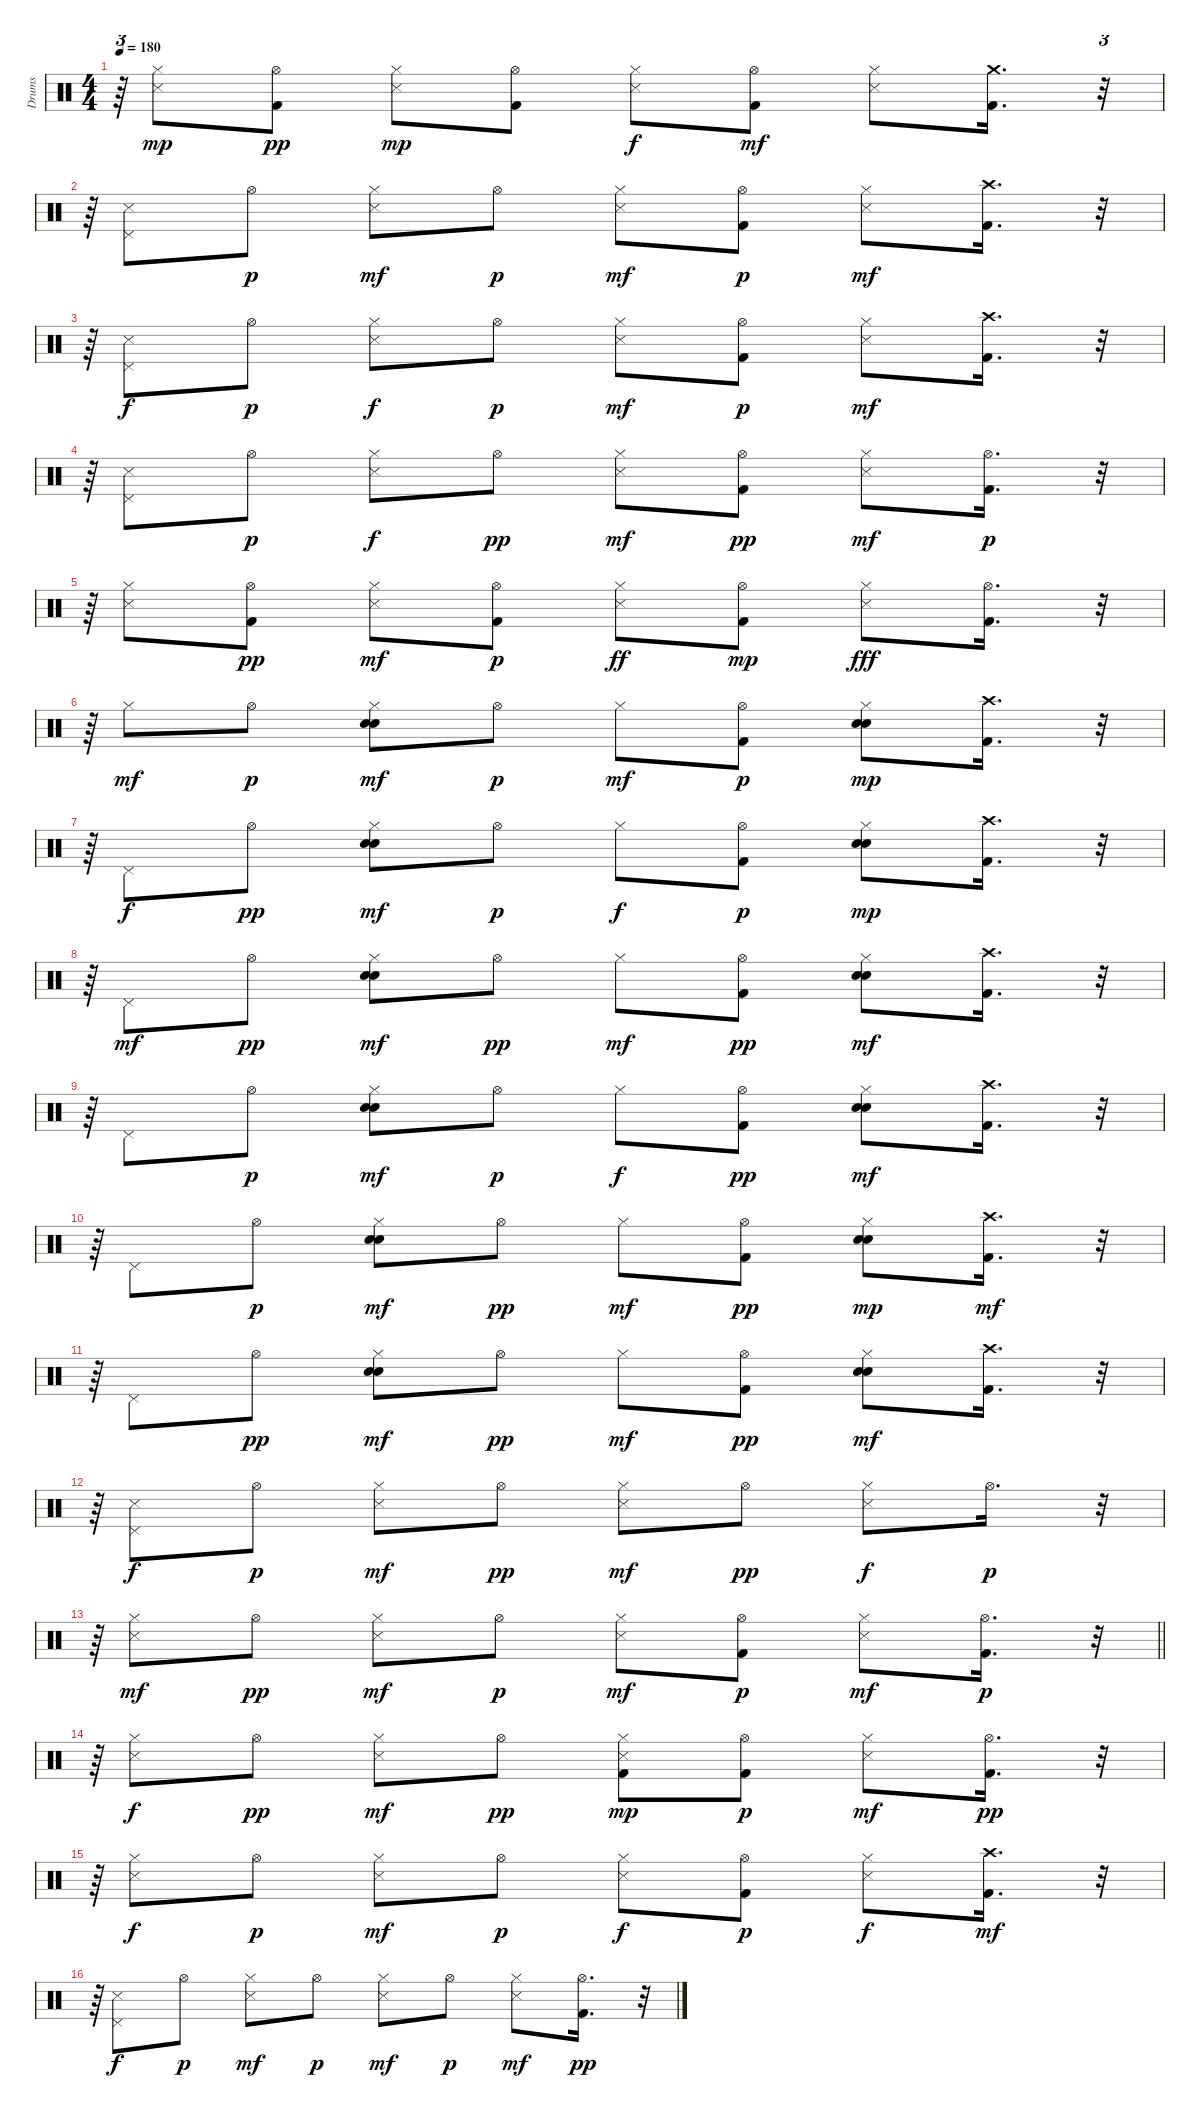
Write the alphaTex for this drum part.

\track ("Drums" "Drums") {instrument percussion}
\staff {score}
\articulation defaults
\ts (4 4)
\tempo 180
\clef neutral
\ks c
r.64{tu (3 2) dy p} ("Hi-Hat (closed)" "Snare (side stick) 3").8{dy mp} ("Kick (hit) 2" "Hi-Hat (open)").8{dy pp} ("Hi-Hat (closed)" "Snare (side stick) 3").8{dy mp} ("Kick (hit) 2" "Hi-Hat (open)").8 ("Hi-Hat (closed)" "Snare (side stick) 3").8{dy f} ("Kick (hit) 2" "Hi-Hat (open)").8{dy mf} ("Hi-Hat (closed)" "Snare (side stick) 3").8 ("Kick (hit) 2" "Crash medium (hit)").16{d} r.32{tu (3 2)} |
r.64{tu (3 2)} ("Pedal Hi-Hat (hit)" "Snare (side stick) 3").8 "Hi-Hat (open)".8{dy p} ("Hi-Hat (closed)" "Snare (side stick) 3").8{dy mf} "Hi-Hat (open)".8{dy p} ("Hi-Hat (closed)" "Snare (side stick) 3").8{dy mf} ("Kick (hit) 2" "Hi-Hat (open)").8{dy p} ("Hi-Hat (closed)" "Snare (side stick) 3").8{dy mf} ("Kick (hit) 2" "Crash high (hit)").16{d} r.32{tu (3 2)} |
r.64{tu (3 2)} ("Pedal Hi-Hat (hit)" "Snare (side stick) 3").8{dy f} "Hi-Hat (open)".8{dy p} ("Hi-Hat (closed)" "Snare (side stick) 3").8{dy f} "Hi-Hat (open)".8{dy p} ("Hi-Hat (closed)" "Snare (side stick) 3").8{dy mf} ("Kick (hit) 2" "Hi-Hat (open)").8{dy p} ("Hi-Hat (closed)" "Snare (side stick) 3").8{dy mf} ("Kick (hit) 2" "Crash high (hit)").16{d} r.32{tu (3 2)} |
r.64{tu (3 2)} ("Snare (side stick) 3" "Pedal Hi-Hat (hit)").8 "Hi-Hat (open)".8{dy p} ("Snare (side stick) 3" "Hi-Hat (closed)").8{dy f} "Hi-Hat (open)".8{dy pp} ("Snare (side stick) 3" "Hi-Hat (closed)").8{dy mf} ("Kick (hit) 2" "Hi-Hat (open)").8{dy pp} ("Snare (side stick) 3" "Hi-Hat (closed)").8{dy mf} ("Kick (hit) 2" "Hi-Hat (open)").16{d dy p} r.32{tu (3 2)} |
r.64{tu (3 2)} ("Snare (side stick) 3" "Hi-Hat (closed)").8 ("Kick (hit) 2" "Hi-Hat (open)").8{dy pp} ("Snare (side stick) 3" "Hi-Hat (closed)").8{dy mf} ("Kick (hit) 2" "Hi-Hat (open)").8{dy p} ("Snare (side stick) 3" "Hi-Hat (closed)").8{dy ff} ("Kick (hit) 2" "Hi-Hat (open)").8{dy mp} ("Snare (side stick) 3" "Hi-Hat (closed)").8{dy fff} ("Kick (hit) 2" "Hi-Hat (open)").16{d} r.32{tu (3 2)} |
r.64{tu (3 2)} "Hi-Hat (closed)".8{dy mf} "Hi-Hat (open)".8{dy p} ("Electric Snare (hit)" "Snare (hit) 2" "Hi-Hat (closed)").8{dy mf} "Hi-Hat (open)".8{dy p} "Hi-Hat (closed)".8{dy mf} ("Kick (hit) 2" "Hi-Hat (open)").8{dy p} ("Electric Snare (hit)" "Snare (hit) 2" "Hi-Hat (closed)").8{dy mp} ("Kick (hit) 2" "Crash high (hit)").16{d} r.32{tu (3 2)} |
r.64{tu (3 2)} "Pedal Hi-Hat (hit)".8{dy f} "Hi-Hat (open)".8{dy pp} ("Electric Snare (hit)" "Snare (hit) 2" "Hi-Hat (closed)").8{dy mf} "Hi-Hat (open)".8{dy p} "Hi-Hat (closed)".8{dy f} ("Kick (hit) 2" "Hi-Hat (open)").8{dy p} ("Electric Snare (hit)" "Snare (hit) 2" "Hi-Hat (closed)").8{dy mp} ("Kick (hit) 2" "Crash high (hit)").16{d} r.32{tu (3 2)} |
r.64{tu (3 2)} "Pedal Hi-Hat (hit)".8{dy mf} "Hi-Hat (open)".8{dy pp} ("Electric Snare (hit)" "Snare (hit) 2" "Hi-Hat (closed)").8{dy mf} "Hi-Hat (open)".8{dy pp} "Hi-Hat (closed)".8{dy mf} ("Kick (hit) 2" "Hi-Hat (open)").8{dy pp} ("Electric Snare (hit)" "Snare (hit) 2" "Hi-Hat (closed)").8{dy mf} ("Kick (hit) 2" "Crash high (hit)").16{d} r.32{tu (3 2)} |
r.64{tu (3 2)} "Pedal Hi-Hat (hit)".8 "Hi-Hat (open)".8{dy p} ("Electric Snare (hit)" "Snare (hit) 2" "Hi-Hat (closed)").8{dy mf} "Hi-Hat (open)".8{dy p} "Hi-Hat (closed)".8{dy f} ("Kick (hit) 2" "Hi-Hat (open)").8{dy pp} ("Electric Snare (hit)" "Snare (hit) 2" "Hi-Hat (closed)").8{dy mf} ("Kick (hit) 2" "Crash high (hit)").16{d} r.32{tu (3 2)} |
r.64{tu (3 2)} "Pedal Hi-Hat (hit)".8 "Hi-Hat (open)".8{dy p} ("Electric Snare (hit)" "Snare (hit) 2" "Hi-Hat (closed)").8{dy mf} "Hi-Hat (open)".8{dy pp} "Hi-Hat (closed)".8{dy mf} ("Kick (hit) 2" "Hi-Hat (open)").8{dy pp} ("Electric Snare (hit)" "Snare (hit) 2" "Hi-Hat (closed)").8{dy mp} ("Kick (hit) 2" "Crash high (hit)").16{d dy mf} r.32{tu (3 2)} |
r.64{tu (3 2)} "Pedal Hi-Hat (hit)".8 "Hi-Hat (open)".8{dy pp} ("Electric Snare (hit)" "Snare (hit) 2" "Hi-Hat (closed)").8{dy mf} "Hi-Hat (open)".8{dy pp} "Hi-Hat (closed)".8{dy mf} ("Kick (hit) 2" "Hi-Hat (open)").8{dy pp} ("Electric Snare (hit)" "Snare (hit) 2" "Hi-Hat (closed)").8{dy mf} ("Kick (hit) 2" "Crash high (hit)").16{d} r.32{tu (3 2)} |
r.64{tu (3 2)} ("Pedal Hi-Hat (hit)" "Snare (side stick) 3").8{dy f} "Hi-Hat (open)".8{dy p} ("Hi-Hat (closed)" "Snare (side stick) 3").8{dy mf} "Hi-Hat (open)".8{dy pp} ("Hi-Hat (closed)" "Snare (side stick) 3").8{dy mf} "Hi-Hat (open)".8{dy pp} ("Hi-Hat (closed)" "Snare (side stick) 3").8{dy f} "Hi-Hat (open)".16{d dy p} r.32{tu (3 2)} |
\barLineRight lightlight
r.64{tu (3 2)} ("Hi-Hat (closed)" "Snare (side stick) 3").8{dy mf} "Hi-Hat (open)".8{dy pp} ("Hi-Hat (closed)" "Snare (side stick) 3").8{dy mf} "Hi-Hat (open)".8{dy p} ("Hi-Hat (closed)" "Snare (side stick) 3").8{dy mf} ("Kick (hit) 2" "Hi-Hat (open)").8{dy p} ("Hi-Hat (closed)" "Snare (side stick) 3").8{dy mf} ("Kick (hit) 2" "Hi-Hat (open)").16{d dy p} r.32{tu (3 2)} |
r.64{tu (3 2)} ("Hi-Hat (closed)" "Snare (side stick) 3").8{dy f} "Hi-Hat (open)".8{dy pp} ("Hi-Hat (closed)" "Snare (side stick) 3").8{dy mf} "Hi-Hat (open)".8{dy pp} ("Kick (hit) 2" "Hi-Hat (closed)" "Snare (side stick) 3").8{dy mp} ("Kick (hit) 2" "Hi-Hat (open)").8{dy p} ("Hi-Hat (closed)" "Snare (side stick) 3").8{dy mf} ("Kick (hit) 2" "Hi-Hat (open)").16{d dy pp} r.32{tu (3 2)} |
r.64{tu (3 2)} ("Hi-Hat (closed)" "Snare (side stick) 3").8{dy f} "Hi-Hat (open)".8{dy p} ("Hi-Hat (closed)" "Snare (side stick) 3").8{dy mf} "Hi-Hat (open)".8{dy p} ("Hi-Hat (closed)" "Snare (side stick) 3").8{dy f} ("Kick (hit) 2" "Hi-Hat (open)").8{dy p} ("Hi-Hat (closed)" "Snare (side stick) 3").8{dy f} ("Kick (hit) 2" "Crash high (hit)").16{d dy mf} r.32{tu (3 2)} |
r.64{tu (3 2)} ("Pedal Hi-Hat (hit)" "Snare (side stick) 3").8{dy f} "Hi-Hat (open)".8{dy p} ("Hi-Hat (closed)" "Snare (side stick) 3").8{dy mf} "Hi-Hat (open)".8{dy p} ("Hi-Hat (closed)" "Snare (side stick) 3").8{dy mf} "Hi-Hat (open)".8{dy p} ("Hi-Hat (closed)" "Snare (side stick) 3").8{dy mf} ("Kick (hit) 2" "Hi-Hat (open)").16{d dy pp} r.32{tu (3 2)}
